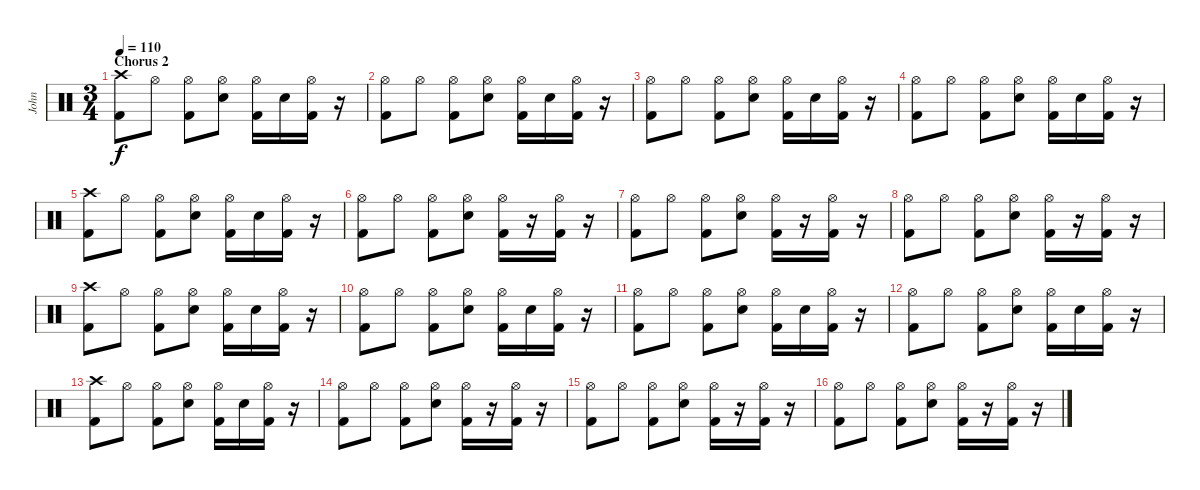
\track ("John" "John") {instrument percussion}
\staff {score}
\articulation defaults
\ts (3 4)
\section ("" "Chorus 2")
\tempo 110
\clef neutral
\ks c
("Crash high (hit)" "Kick (hit) 2").8{dy f} "Hi-Hat (open)".8 ("Hi-Hat (open)" "Kick (hit) 2").8 ("Hi-Hat (open)" "Electric Snare (hit)").8 ("Hi-Hat (open)" "Kick (hit) 2").16 "Electric Snare (hit)".16 ("Hi-Hat (open)" "Kick (hit) 2").16 r.16 |
("Hi-Hat (open)" "Kick (hit) 2").8 "Hi-Hat (open)".8 ("Hi-Hat (open)" "Kick (hit) 2").8 ("Hi-Hat (open)" "Electric Snare (hit)").8 ("Hi-Hat (open)" "Kick (hit) 2").16 "Electric Snare (hit)".16 ("Hi-Hat (open)" "Kick (hit) 2").16 r.16 |
("Hi-Hat (open)" "Kick (hit) 2").8 "Hi-Hat (open)".8 ("Hi-Hat (open)" "Kick (hit) 2").8 ("Hi-Hat (open)" "Electric Snare (hit)").8 ("Hi-Hat (open)" "Kick (hit) 2").16 "Electric Snare (hit)".16 ("Hi-Hat (open)" "Kick (hit) 2").16 r.16 |
("Hi-Hat (open)" "Kick (hit) 2").8 "Hi-Hat (open)".8 ("Hi-Hat (open)" "Kick (hit) 2").8 ("Hi-Hat (open)" "Electric Snare (hit)").8 ("Hi-Hat (open)" "Kick (hit) 2").16 "Electric Snare (hit)".16 ("Hi-Hat (open)" "Kick (hit) 2").16 r.16 |
("Crash high (hit)" "Kick (hit) 2").8 "Hi-Hat (open)".8 ("Hi-Hat (open)" "Kick (hit) 2").8 ("Hi-Hat (open)" "Electric Snare (hit)").8 ("Hi-Hat (open)" "Kick (hit) 2").16 "Electric Snare (hit)".16 ("Hi-Hat (open)" "Kick (hit) 2").16 r.16 |
("Hi-Hat (open)" "Kick (hit) 2").8 "Hi-Hat (open)".8 ("Hi-Hat (open)" "Kick (hit) 2").8 ("Hi-Hat (open)" "Electric Snare (hit)").8 ("Hi-Hat (open)" "Kick (hit) 2").16 r.16 ("Hi-Hat (open)" "Kick (hit) 2").16 r.16 |
("Hi-Hat (open)" "Kick (hit) 2").8 "Hi-Hat (open)".8 ("Hi-Hat (open)" "Kick (hit) 2").8 ("Hi-Hat (open)" "Electric Snare (hit)").8 ("Hi-Hat (open)" "Kick (hit) 2").16 r.16 ("Hi-Hat (open)" "Kick (hit) 2").16 r.16 |
("Hi-Hat (open)" "Kick (hit) 2").8 "Hi-Hat (open)".8 ("Hi-Hat (open)" "Kick (hit) 2").8 ("Hi-Hat (open)" "Electric Snare (hit)").8 ("Hi-Hat (open)" "Kick (hit) 2").16 r.16 ("Hi-Hat (open)" "Kick (hit) 2").16 r.16 |
("Crash high (hit)" "Kick (hit) 2").8 "Hi-Hat (open)".8 ("Hi-Hat (open)" "Kick (hit) 2").8 ("Hi-Hat (open)" "Electric Snare (hit)").8 ("Hi-Hat (open)" "Kick (hit) 2").16 "Electric Snare (hit)".16 ("Hi-Hat (open)" "Kick (hit) 2").16 r.16 |
("Hi-Hat (open)" "Kick (hit) 2").8 "Hi-Hat (open)".8 ("Hi-Hat (open)" "Kick (hit) 2").8 ("Hi-Hat (open)" "Electric Snare (hit)").8 ("Hi-Hat (open)" "Kick (hit) 2").16 "Electric Snare (hit)".16 ("Hi-Hat (open)" "Kick (hit) 2").16 r.16 |
("Hi-Hat (open)" "Kick (hit) 2").8 "Hi-Hat (open)".8 ("Hi-Hat (open)" "Kick (hit) 2").8 ("Hi-Hat (open)" "Electric Snare (hit)").8 ("Hi-Hat (open)" "Kick (hit) 2").16 "Electric Snare (hit)".16 ("Hi-Hat (open)" "Kick (hit) 2").16 r.16 |
("Hi-Hat (open)" "Kick (hit) 2").8 "Hi-Hat (open)".8 ("Hi-Hat (open)" "Kick (hit) 2").8 ("Hi-Hat (open)" "Electric Snare (hit)").8 ("Hi-Hat (open)" "Kick (hit) 2").16 "Electric Snare (hit)".16 ("Hi-Hat (open)" "Kick (hit) 2").16 r.16 |
("Crash high (hit)" "Kick (hit) 2").8 "Hi-Hat (open)".8 ("Hi-Hat (open)" "Kick (hit) 2").8 ("Hi-Hat (open)" "Electric Snare (hit)").8 ("Hi-Hat (open)" "Kick (hit) 2").16 "Electric Snare (hit)".16 ("Hi-Hat (open)" "Kick (hit) 2").16 r.16 |
("Hi-Hat (open)" "Kick (hit) 2").8 "Hi-Hat (open)".8 ("Hi-Hat (open)" "Kick (hit) 2").8 ("Hi-Hat (open)" "Electric Snare (hit)").8 ("Hi-Hat (open)" "Kick (hit) 2").16 r.16 ("Hi-Hat (open)" "Kick (hit) 2").16 r.16 |
("Hi-Hat (open)" "Kick (hit) 2").8 "Hi-Hat (open)".8 ("Hi-Hat (open)" "Kick (hit) 2").8 ("Hi-Hat (open)" "Electric Snare (hit)").8 ("Hi-Hat (open)" "Kick (hit) 2").16 r.16 ("Hi-Hat (open)" "Kick (hit) 2").16 r.16 |
("Hi-Hat (open)" "Kick (hit) 2").8 "Hi-Hat (open)".8 ("Hi-Hat (open)" "Kick (hit) 2").8 ("Hi-Hat (open)" "Electric Snare (hit)").8 ("Hi-Hat (open)" "Kick (hit) 2").16 r.16 ("Hi-Hat (open)" "Kick (hit) 2").16 r.16
